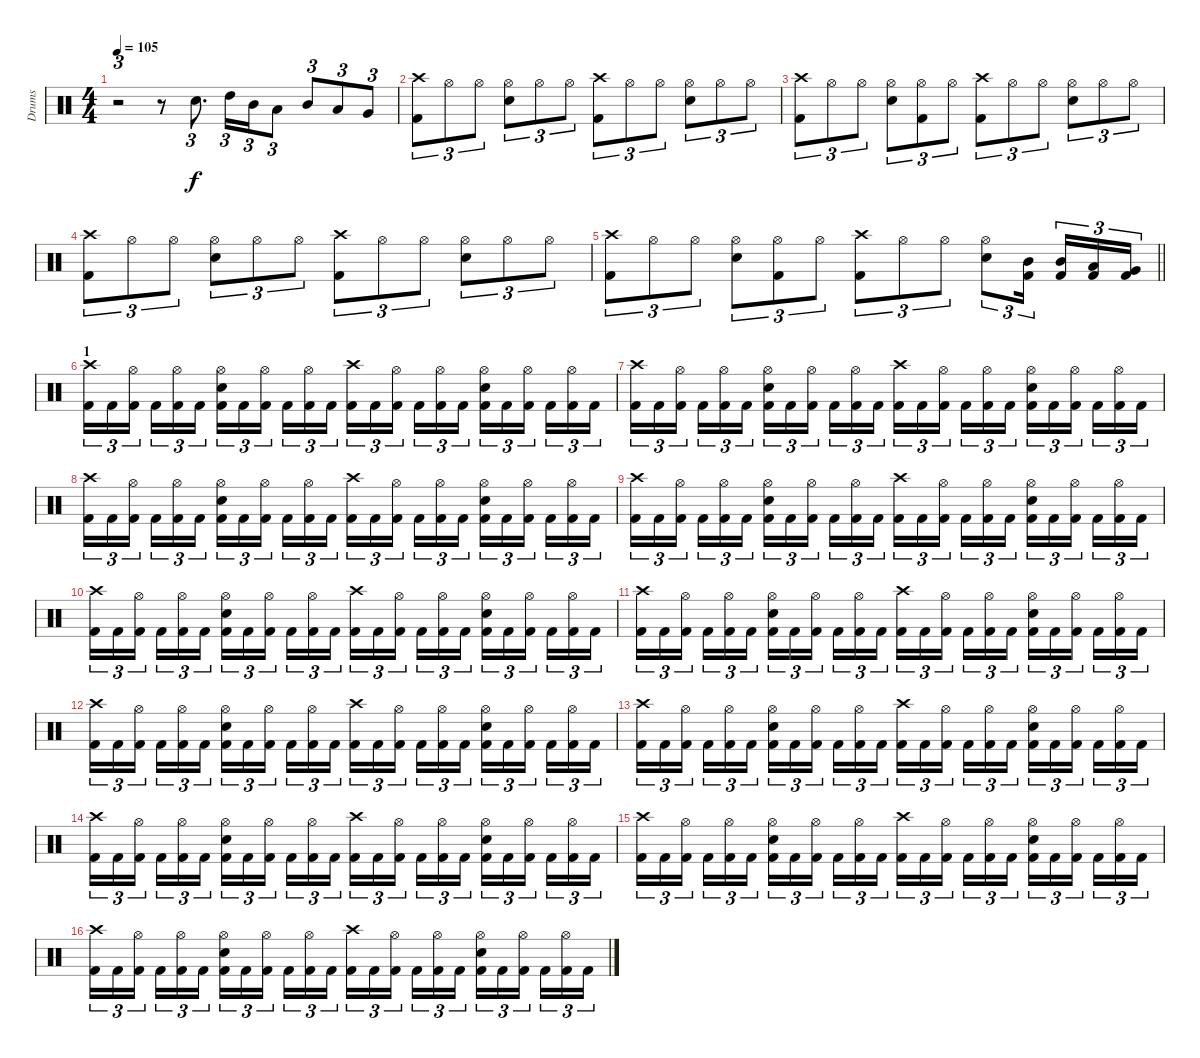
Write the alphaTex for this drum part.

\track ("Drums" "Drums") {instrument percussion}
\staff {score}
\articulation defaults
\ts (4 4)
\tempo 105
\clef neutral
\ks c
r.2{tu (3 2) dy f} r.8 "Electric Snare (hit)".8{d tu (3 2)} "High Tom (hit)".16{tu (3 2)} "Mid Tom (hit)".16{tu (3 2)} "Low Tom (hit)".8{tu (3 2)} "Mid Tom (hit)".8{tu (3 2)} "Low Tom (hit)".8{tu (3 2)} "Very Low Tom (hit)".8{tu (3 2)} |
("Crash high (hit)" "Kick (hit) 2").8{tu (3 2)} "Hi-Hat (open)".8{tu (3 2)} "Hi-Hat (open)".8{tu (3 2)} ("Hi-Hat (open)" "Electric Snare (hit)").8{tu (3 2)} "Hi-Hat (open)".8{tu (3 2)} "Hi-Hat (open)".8{tu (3 2)} ("Crash high (hit)" "Kick (hit) 2").8{tu (3 2)} "Hi-Hat (open)".8{tu (3 2)} "Hi-Hat (open)".8{tu (3 2)} ("Hi-Hat (open)" "Electric Snare (hit)").8{tu (3 2)} "Hi-Hat (open)".8{tu (3 2)} "Hi-Hat (open)".8{tu (3 2)} |
("Crash high (hit)" "Kick (hit) 2").8{tu (3 2)} "Hi-Hat (open)".8{tu (3 2)} "Hi-Hat (open)".8{tu (3 2)} ("Hi-Hat (open)" "Electric Snare (hit)").8{tu (3 2)} ("Hi-Hat (open)" "Kick (hit) 2").8{tu (3 2)} "Hi-Hat (open)".8{tu (3 2)} ("Crash high (hit)" "Kick (hit) 2").8{tu (3 2)} "Hi-Hat (open)".8{tu (3 2)} "Hi-Hat (open)".8{tu (3 2)} ("Hi-Hat (open)" "Electric Snare (hit)").8{tu (3 2)} "Hi-Hat (open)".8{tu (3 2)} "Hi-Hat (open)".8{tu (3 2)} |
("Crash high (hit)" "Kick (hit) 2").8{tu (3 2)} "Hi-Hat (open)".8{tu (3 2)} "Hi-Hat (open)".8{tu (3 2)} ("Hi-Hat (open)" "Electric Snare (hit)").8{tu (3 2)} "Hi-Hat (open)".8{tu (3 2)} "Hi-Hat (open)".8{tu (3 2)} ("Crash high (hit)" "Kick (hit) 2").8{tu (3 2)} "Hi-Hat (open)".8{tu (3 2)} "Hi-Hat (open)".8{tu (3 2)} ("Hi-Hat (open)" "Electric Snare (hit)").8{tu (3 2)} "Hi-Hat (open)".8{tu (3 2)} "Hi-Hat (open)".8{tu (3 2)} |
\barLineRight lightlight
("Crash high (hit)" "Kick (hit) 2").8{tu (3 2)} "Hi-Hat (open)".8{tu (3 2)} "Hi-Hat (open)".8{tu (3 2)} ("Hi-Hat (open)" "Electric Snare (hit)").8{tu (3 2)} ("Hi-Hat (open)" "Kick (hit) 2").8{tu (3 2)} "Hi-Hat (open)".8{tu (3 2)} ("Crash high (hit)" "Kick (hit) 2").8{tu (3 2)} "Hi-Hat (open)".8{tu (3 2)} "Hi-Hat (open)".8{tu (3 2)} ("Hi-Hat (open)" "Electric Snare (hit)").8{tu (3 2)} ("Mid Tom (hit)" "Kick (hit) 2").16{tu (3 2) beam splitsecondary} ("Mid Tom (hit)" "Kick (hit) 2").16{tu (3 2)} ("Low Tom (hit)" "Kick (hit) 2").16{tu (3 2)} ("Very Low Tom (hit)" "Kick (hit) 2").16{tu (3 2)} |
\section ("" "1")
("Crash high (hit)" "Kick (hit) 2").16{tu (3 2)} "Kick (hit) 2".16{tu (3 2)} ("Hi-Hat (open)" "Kick (hit) 2").16{tu (3 2) beam splitsecondary} "Kick (hit) 2".16{tu (3 2)} ("Hi-Hat (open)" "Kick (hit) 2").16{tu (3 2)} "Kick (hit) 2".16{tu (3 2)} ("Hi-Hat (open)" "Electric Snare (hit)" "Kick (hit) 2").16{tu (3 2)} "Kick (hit) 2".16{tu (3 2)} ("Hi-Hat (open)" "Kick (hit) 2").16{tu (3 2) beam splitsecondary} "Kick (hit) 2".16{tu (3 2)} ("Hi-Hat (open)" "Kick (hit) 2").16{tu (3 2)} "Kick (hit) 2".16{tu (3 2)} ("Crash high (hit)" "Kick (hit) 2").16{tu (3 2)} "Kick (hit) 2".16{tu (3 2)} ("Hi-Hat (open)" "Kick (hit) 2").16{tu (3 2) beam splitsecondary} "Kick (hit) 2".16{tu (3 2)} ("Hi-Hat (open)" "Kick (hit) 2").16{tu (3 2)} "Kick (hit) 2".16{tu (3 2)} ("Hi-Hat (open)" "Electric Snare (hit)" "Kick (hit) 2").16{tu (3 2)} "Kick (hit) 2".16{tu (3 2)} ("Hi-Hat (open)" "Kick (hit) 2").16{tu (3 2) beam splitsecondary} "Kick (hit) 2".16{tu (3 2)} ("Hi-Hat (open)" "Kick (hit) 2").16{tu (3 2)} "Kick (hit) 2".16{tu (3 2)} |
("Crash high (hit)" "Kick (hit) 2").16{tu (3 2)} "Kick (hit) 2".16{tu (3 2)} ("Hi-Hat (open)" "Kick (hit) 2").16{tu (3 2) beam splitsecondary} "Kick (hit) 2".16{tu (3 2)} ("Hi-Hat (open)" "Kick (hit) 2").16{tu (3 2)} "Kick (hit) 2".16{tu (3 2)} ("Hi-Hat (open)" "Electric Snare (hit)" "Kick (hit) 2").16{tu (3 2)} "Kick (hit) 2".16{tu (3 2)} ("Hi-Hat (open)" "Kick (hit) 2").16{tu (3 2) beam splitsecondary} "Kick (hit) 2".16{tu (3 2)} ("Hi-Hat (open)" "Kick (hit) 2").16{tu (3 2)} "Kick (hit) 2".16{tu (3 2)} ("Crash high (hit)" "Kick (hit) 2").16{tu (3 2)} "Kick (hit) 2".16{tu (3 2)} ("Hi-Hat (open)" "Kick (hit) 2").16{tu (3 2) beam splitsecondary} "Kick (hit) 2".16{tu (3 2)} ("Hi-Hat (open)" "Kick (hit) 2").16{tu (3 2)} "Kick (hit) 2".16{tu (3 2)} ("Hi-Hat (open)" "Electric Snare (hit)" "Kick (hit) 2").16{tu (3 2)} "Kick (hit) 2".16{tu (3 2)} ("Hi-Hat (open)" "Kick (hit) 2").16{tu (3 2) beam splitsecondary} "Kick (hit) 2".16{tu (3 2)} ("Hi-Hat (open)" "Kick (hit) 2").16{tu (3 2)} "Kick (hit) 2".16{tu (3 2)} |
("Crash high (hit)" "Kick (hit) 2").16{tu (3 2)} "Kick (hit) 2".16{tu (3 2)} ("Hi-Hat (open)" "Kick (hit) 2").16{tu (3 2) beam splitsecondary} "Kick (hit) 2".16{tu (3 2)} ("Hi-Hat (open)" "Kick (hit) 2").16{tu (3 2)} "Kick (hit) 2".16{tu (3 2)} ("Hi-Hat (open)" "Electric Snare (hit)" "Kick (hit) 2").16{tu (3 2)} "Kick (hit) 2".16{tu (3 2)} ("Hi-Hat (open)" "Kick (hit) 2").16{tu (3 2) beam splitsecondary} "Kick (hit) 2".16{tu (3 2)} ("Hi-Hat (open)" "Kick (hit) 2").16{tu (3 2)} "Kick (hit) 2".16{tu (3 2)} ("Crash high (hit)" "Kick (hit) 2").16{tu (3 2)} "Kick (hit) 2".16{tu (3 2)} ("Hi-Hat (open)" "Kick (hit) 2").16{tu (3 2) beam splitsecondary} "Kick (hit) 2".16{tu (3 2)} ("Hi-Hat (open)" "Kick (hit) 2").16{tu (3 2)} "Kick (hit) 2".16{tu (3 2)} ("Hi-Hat (open)" "Electric Snare (hit)" "Kick (hit) 2").16{tu (3 2)} "Kick (hit) 2".16{tu (3 2)} ("Hi-Hat (open)" "Kick (hit) 2").16{tu (3 2) beam splitsecondary} "Kick (hit) 2".16{tu (3 2)} ("Hi-Hat (open)" "Kick (hit) 2").16{tu (3 2)} "Kick (hit) 2".16{tu (3 2)} |
("Crash high (hit)" "Kick (hit) 2").16{tu (3 2)} "Kick (hit) 2".16{tu (3 2)} ("Hi-Hat (open)" "Kick (hit) 2").16{tu (3 2) beam splitsecondary} "Kick (hit) 2".16{tu (3 2)} ("Hi-Hat (open)" "Kick (hit) 2").16{tu (3 2)} "Kick (hit) 2".16{tu (3 2)} ("Hi-Hat (open)" "Electric Snare (hit)" "Kick (hit) 2").16{tu (3 2)} "Kick (hit) 2".16{tu (3 2)} ("Hi-Hat (open)" "Kick (hit) 2").16{tu (3 2) beam splitsecondary} "Kick (hit) 2".16{tu (3 2)} ("Hi-Hat (open)" "Kick (hit) 2").16{tu (3 2)} "Kick (hit) 2".16{tu (3 2)} ("Crash high (hit)" "Kick (hit) 2").16{tu (3 2)} "Kick (hit) 2".16{tu (3 2)} ("Hi-Hat (open)" "Kick (hit) 2").16{tu (3 2) beam splitsecondary} "Kick (hit) 2".16{tu (3 2)} ("Hi-Hat (open)" "Kick (hit) 2").16{tu (3 2)} "Kick (hit) 2".16{tu (3 2)} ("Hi-Hat (open)" "Electric Snare (hit)" "Kick (hit) 2").16{tu (3 2)} "Kick (hit) 2".16{tu (3 2)} ("Hi-Hat (open)" "Kick (hit) 2").16{tu (3 2) beam splitsecondary} "Kick (hit) 2".16{tu (3 2)} ("Hi-Hat (open)" "Kick (hit) 2").16{tu (3 2)} "Kick (hit) 2".16{tu (3 2)} |
("Crash high (hit)" "Kick (hit) 2").16{tu (3 2)} "Kick (hit) 2".16{tu (3 2)} ("Hi-Hat (open)" "Kick (hit) 2").16{tu (3 2) beam splitsecondary} "Kick (hit) 2".16{tu (3 2)} ("Hi-Hat (open)" "Kick (hit) 2").16{tu (3 2)} "Kick (hit) 2".16{tu (3 2)} ("Hi-Hat (open)" "Electric Snare (hit)" "Kick (hit) 2").16{tu (3 2)} "Kick (hit) 2".16{tu (3 2)} ("Hi-Hat (open)" "Kick (hit) 2").16{tu (3 2) beam splitsecondary} "Kick (hit) 2".16{tu (3 2)} ("Hi-Hat (open)" "Kick (hit) 2").16{tu (3 2)} "Kick (hit) 2".16{tu (3 2)} ("Crash high (hit)" "Kick (hit) 2").16{tu (3 2)} "Kick (hit) 2".16{tu (3 2)} ("Hi-Hat (open)" "Kick (hit) 2").16{tu (3 2) beam splitsecondary} "Kick (hit) 2".16{tu (3 2)} ("Hi-Hat (open)" "Kick (hit) 2").16{tu (3 2)} "Kick (hit) 2".16{tu (3 2)} ("Hi-Hat (open)" "Electric Snare (hit)" "Kick (hit) 2").16{tu (3 2)} "Kick (hit) 2".16{tu (3 2)} ("Hi-Hat (open)" "Kick (hit) 2").16{tu (3 2) beam splitsecondary} "Kick (hit) 2".16{tu (3 2)} ("Hi-Hat (open)" "Kick (hit) 2").16{tu (3 2)} "Kick (hit) 2".16{tu (3 2)} |
("Crash high (hit)" "Kick (hit) 2").16{tu (3 2)} "Kick (hit) 2".16{tu (3 2)} ("Hi-Hat (open)" "Kick (hit) 2").16{tu (3 2) beam splitsecondary} "Kick (hit) 2".16{tu (3 2)} ("Hi-Hat (open)" "Kick (hit) 2").16{tu (3 2)} "Kick (hit) 2".16{tu (3 2)} ("Hi-Hat (open)" "Electric Snare (hit)" "Kick (hit) 2").16{tu (3 2)} "Kick (hit) 2".16{tu (3 2)} ("Hi-Hat (open)" "Kick (hit) 2").16{tu (3 2) beam splitsecondary} "Kick (hit) 2".16{tu (3 2)} ("Hi-Hat (open)" "Kick (hit) 2").16{tu (3 2)} "Kick (hit) 2".16{tu (3 2)} ("Crash high (hit)" "Kick (hit) 2").16{tu (3 2)} "Kick (hit) 2".16{tu (3 2)} ("Hi-Hat (open)" "Kick (hit) 2").16{tu (3 2) beam splitsecondary} "Kick (hit) 2".16{tu (3 2)} ("Hi-Hat (open)" "Kick (hit) 2").16{tu (3 2)} "Kick (hit) 2".16{tu (3 2)} ("Hi-Hat (open)" "Electric Snare (hit)" "Kick (hit) 2").16{tu (3 2)} "Kick (hit) 2".16{tu (3 2)} ("Hi-Hat (open)" "Kick (hit) 2").16{tu (3 2) beam splitsecondary} "Kick (hit) 2".16{tu (3 2)} ("Hi-Hat (open)" "Kick (hit) 2").16{tu (3 2)} "Kick (hit) 2".16{tu (3 2)} |
("Crash high (hit)" "Kick (hit) 2").16{tu (3 2)} "Kick (hit) 2".16{tu (3 2)} ("Hi-Hat (open)" "Kick (hit) 2").16{tu (3 2) beam splitsecondary} "Kick (hit) 2".16{tu (3 2)} ("Hi-Hat (open)" "Kick (hit) 2").16{tu (3 2)} "Kick (hit) 2".16{tu (3 2)} ("Hi-Hat (open)" "Electric Snare (hit)" "Kick (hit) 2").16{tu (3 2)} "Kick (hit) 2".16{tu (3 2)} ("Hi-Hat (open)" "Kick (hit) 2").16{tu (3 2) beam splitsecondary} "Kick (hit) 2".16{tu (3 2)} ("Hi-Hat (open)" "Kick (hit) 2").16{tu (3 2)} "Kick (hit) 2".16{tu (3 2)} ("Crash high (hit)" "Kick (hit) 2").16{tu (3 2)} "Kick (hit) 2".16{tu (3 2)} ("Hi-Hat (open)" "Kick (hit) 2").16{tu (3 2) beam splitsecondary} "Kick (hit) 2".16{tu (3 2)} ("Hi-Hat (open)" "Kick (hit) 2").16{tu (3 2)} "Kick (hit) 2".16{tu (3 2)} ("Hi-Hat (open)" "Electric Snare (hit)" "Kick (hit) 2").16{tu (3 2)} "Kick (hit) 2".16{tu (3 2)} ("Hi-Hat (open)" "Kick (hit) 2").16{tu (3 2) beam splitsecondary} "Kick (hit) 2".16{tu (3 2)} ("Hi-Hat (open)" "Kick (hit) 2").16{tu (3 2)} "Kick (hit) 2".16{tu (3 2)} |
("Crash high (hit)" "Kick (hit) 2").16{tu (3 2)} "Kick (hit) 2".16{tu (3 2)} ("Hi-Hat (open)" "Kick (hit) 2").16{tu (3 2) beam splitsecondary} "Kick (hit) 2".16{tu (3 2)} ("Hi-Hat (open)" "Kick (hit) 2").16{tu (3 2)} "Kick (hit) 2".16{tu (3 2)} ("Hi-Hat (open)" "Electric Snare (hit)" "Kick (hit) 2").16{tu (3 2)} "Kick (hit) 2".16{tu (3 2)} ("Hi-Hat (open)" "Kick (hit) 2").16{tu (3 2) beam splitsecondary} "Kick (hit) 2".16{tu (3 2)} ("Hi-Hat (open)" "Kick (hit) 2").16{tu (3 2)} "Kick (hit) 2".16{tu (3 2)} ("Crash high (hit)" "Kick (hit) 2").16{tu (3 2)} "Kick (hit) 2".16{tu (3 2)} ("Hi-Hat (open)" "Kick (hit) 2").16{tu (3 2) beam splitsecondary} "Kick (hit) 2".16{tu (3 2)} ("Hi-Hat (open)" "Kick (hit) 2").16{tu (3 2)} "Kick (hit) 2".16{tu (3 2)} ("Hi-Hat (open)" "Electric Snare (hit)" "Kick (hit) 2").16{tu (3 2)} "Kick (hit) 2".16{tu (3 2)} ("Hi-Hat (open)" "Kick (hit) 2").16{tu (3 2) beam splitsecondary} "Kick (hit) 2".16{tu (3 2)} ("Hi-Hat (open)" "Kick (hit) 2").16{tu (3 2)} "Kick (hit) 2".16{tu (3 2)} |
("Crash high (hit)" "Kick (hit) 2").16{tu (3 2)} "Kick (hit) 2".16{tu (3 2)} ("Hi-Hat (open)" "Kick (hit) 2").16{tu (3 2) beam splitsecondary} "Kick (hit) 2".16{tu (3 2)} ("Hi-Hat (open)" "Kick (hit) 2").16{tu (3 2)} "Kick (hit) 2".16{tu (3 2)} ("Hi-Hat (open)" "Electric Snare (hit)" "Kick (hit) 2").16{tu (3 2)} "Kick (hit) 2".16{tu (3 2)} ("Hi-Hat (open)" "Kick (hit) 2").16{tu (3 2) beam splitsecondary} "Kick (hit) 2".16{tu (3 2)} ("Hi-Hat (open)" "Kick (hit) 2").16{tu (3 2)} "Kick (hit) 2".16{tu (3 2)} ("Crash high (hit)" "Kick (hit) 2").16{tu (3 2)} "Kick (hit) 2".16{tu (3 2)} ("Hi-Hat (open)" "Kick (hit) 2").16{tu (3 2) beam splitsecondary} "Kick (hit) 2".16{tu (3 2)} ("Hi-Hat (open)" "Kick (hit) 2").16{tu (3 2)} "Kick (hit) 2".16{tu (3 2)} ("Hi-Hat (open)" "Electric Snare (hit)" "Kick (hit) 2").16{tu (3 2)} "Kick (hit) 2".16{tu (3 2)} ("Hi-Hat (open)" "Kick (hit) 2").16{tu (3 2) beam splitsecondary} "Kick (hit) 2".16{tu (3 2)} ("Hi-Hat (open)" "Kick (hit) 2").16{tu (3 2)} "Kick (hit) 2".16{tu (3 2)} |
("Crash high (hit)" "Kick (hit) 2").16{tu (3 2)} "Kick (hit) 2".16{tu (3 2)} ("Hi-Hat (open)" "Kick (hit) 2").16{tu (3 2) beam splitsecondary} "Kick (hit) 2".16{tu (3 2)} ("Hi-Hat (open)" "Kick (hit) 2").16{tu (3 2)} "Kick (hit) 2".16{tu (3 2)} ("Hi-Hat (open)" "Electric Snare (hit)" "Kick (hit) 2").16{tu (3 2)} "Kick (hit) 2".16{tu (3 2)} ("Hi-Hat (open)" "Kick (hit) 2").16{tu (3 2) beam splitsecondary} "Kick (hit) 2".16{tu (3 2)} ("Hi-Hat (open)" "Kick (hit) 2").16{tu (3 2)} "Kick (hit) 2".16{tu (3 2)} ("Crash high (hit)" "Kick (hit) 2").16{tu (3 2)} "Kick (hit) 2".16{tu (3 2)} ("Hi-Hat (open)" "Kick (hit) 2").16{tu (3 2) beam splitsecondary} "Kick (hit) 2".16{tu (3 2)} ("Hi-Hat (open)" "Kick (hit) 2").16{tu (3 2)} "Kick (hit) 2".16{tu (3 2)} ("Hi-Hat (open)" "Electric Snare (hit)" "Kick (hit) 2").16{tu (3 2)} "Kick (hit) 2".16{tu (3 2)} ("Hi-Hat (open)" "Kick (hit) 2").16{tu (3 2) beam splitsecondary} "Kick (hit) 2".16{tu (3 2)} ("Hi-Hat (open)" "Kick (hit) 2").16{tu (3 2)} "Kick (hit) 2".16{tu (3 2)} |
("Crash high (hit)" "Kick (hit) 2").16{tu (3 2)} "Kick (hit) 2".16{tu (3 2)} ("Hi-Hat (open)" "Kick (hit) 2").16{tu (3 2) beam splitsecondary} "Kick (hit) 2".16{tu (3 2)} ("Hi-Hat (open)" "Kick (hit) 2").16{tu (3 2)} "Kick (hit) 2".16{tu (3 2)} ("Hi-Hat (open)" "Electric Snare (hit)" "Kick (hit) 2").16{tu (3 2)} "Kick (hit) 2".16{tu (3 2)} ("Hi-Hat (open)" "Kick (hit) 2").16{tu (3 2) beam splitsecondary} "Kick (hit) 2".16{tu (3 2)} ("Hi-Hat (open)" "Kick (hit) 2").16{tu (3 2)} "Kick (hit) 2".16{tu (3 2)} ("Crash high (hit)" "Kick (hit) 2").16{tu (3 2)} "Kick (hit) 2".16{tu (3 2)} ("Hi-Hat (open)" "Kick (hit) 2").16{tu (3 2) beam splitsecondary} "Kick (hit) 2".16{tu (3 2)} ("Hi-Hat (open)" "Kick (hit) 2").16{tu (3 2)} "Kick (hit) 2".16{tu (3 2)} ("Hi-Hat (open)" "Electric Snare (hit)" "Kick (hit) 2").16{tu (3 2)} "Kick (hit) 2".16{tu (3 2)} ("Hi-Hat (open)" "Kick (hit) 2").16{tu (3 2) beam splitsecondary} "Kick (hit) 2".16{tu (3 2)} ("Hi-Hat (open)" "Kick (hit) 2").16{tu (3 2)} "Kick (hit) 2".16{tu (3 2)}
